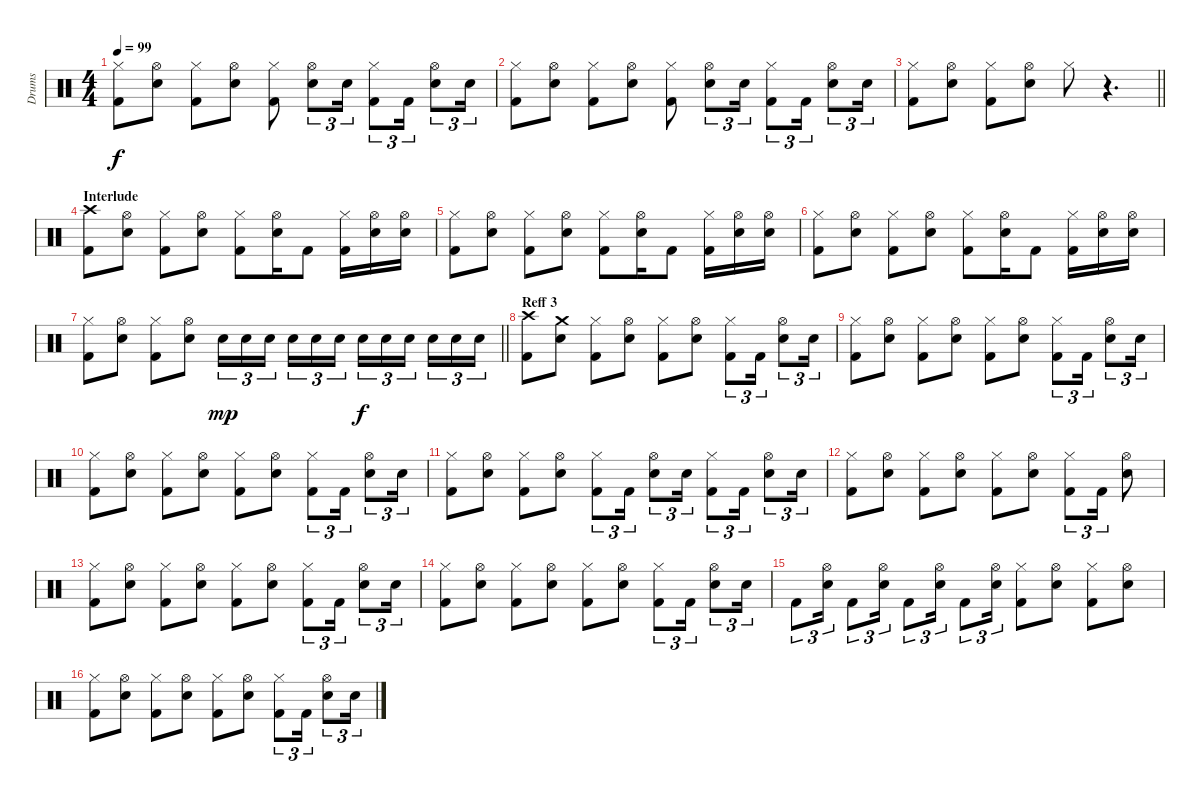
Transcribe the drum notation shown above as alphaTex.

\track ("Drums" "Drums") {instrument percussion}
\staff {score}
\articulation defaults
\ts (4 4)
\tempo 99
\clef neutral
\ks c
("Hi-Hat (closed)" "Kick (hit) 2").8{dy f} ("Hi-Hat (open)" "Snare (hit) 2").8 ("Hi-Hat (closed)" "Kick (hit) 2").8 ("Hi-Hat (open)" "Snare (hit) 2").8 ("Hi-Hat (closed)" "Kick (hit) 2").8 ("Hi-Hat (open)" "Snare (hit) 2").8{tu (3 2)} "Snare (hit) 2".16{tu (3 2)} ("Hi-Hat (closed)" "Kick (hit) 2").8{tu (3 2)} "Kick (hit) 2".16{tu (3 2)} ("Hi-Hat (open)" "Snare (hit) 2").8{tu (3 2)} "Snare (hit) 2".16{tu (3 2)} |
("Hi-Hat (closed)" "Kick (hit) 2").8 ("Hi-Hat (open)" "Snare (hit) 2").8 ("Hi-Hat (closed)" "Kick (hit) 2").8 ("Hi-Hat (open)" "Snare (hit) 2").8 ("Hi-Hat (closed)" "Kick (hit) 2").8 ("Hi-Hat (open)" "Snare (hit) 2").8{tu (3 2)} "Snare (hit) 2".16{tu (3 2)} ("Hi-Hat (closed)" "Kick (hit) 2").8{tu (3 2)} "Kick (hit) 2".16{tu (3 2)} ("Hi-Hat (open)" "Snare (hit) 2").8{tu (3 2)} "Snare (hit) 2".16{tu (3 2)} |
\barLineRight lightlight
("Hi-Hat (closed)" "Kick (hit) 2").8 ("Hi-Hat (open)" "Snare (hit) 2").8 ("Hi-Hat (closed)" "Kick (hit) 2").8 ("Hi-Hat (open)" "Snare (hit) 2").8 "Hi-Hat (closed)".8 r.4{d} |
\section ("" "Interlude")
("Crash high (hit)" "Kick (hit) 2").8 ("Hi-Hat (open)" "Snare (hit) 2").8 ("Hi-Hat (closed)" "Kick (hit) 2").8 ("Hi-Hat (open)" "Snare (hit) 2").8 ("Hi-Hat (closed)" "Kick (hit) 2").8 ("Hi-Hat (open)" "Snare (hit) 2").16 "Kick (hit) 2".8 ("Hi-Hat (closed)" "Kick (hit) 2").16 ("Hi-Hat (open)" "Snare (hit) 2").16 ("Hi-Hat (open)" "Snare (hit) 2").16 |
("Hi-Hat (closed)" "Kick (hit) 2").8 ("Hi-Hat (open)" "Snare (hit) 2").8 ("Hi-Hat (closed)" "Kick (hit) 2").8 ("Hi-Hat (open)" "Snare (hit) 2").8 ("Hi-Hat (closed)" "Kick (hit) 2").8 ("Hi-Hat (open)" "Snare (hit) 2").16 "Kick (hit) 2".8 ("Hi-Hat (closed)" "Kick (hit) 2").16 ("Hi-Hat (open)" "Snare (hit) 2").16 ("Hi-Hat (open)" "Snare (hit) 2").16 |
("Hi-Hat (closed)" "Kick (hit) 2").8 ("Hi-Hat (open)" "Snare (hit) 2").8 ("Hi-Hat (closed)" "Kick (hit) 2").8 ("Hi-Hat (open)" "Snare (hit) 2").8 ("Hi-Hat (closed)" "Kick (hit) 2").8 ("Hi-Hat (open)" "Snare (hit) 2").16 "Kick (hit) 2".8 ("Hi-Hat (closed)" "Kick (hit) 2").16 ("Hi-Hat (open)" "Snare (hit) 2").16 ("Hi-Hat (open)" "Snare (hit) 2").16 |
\barLineRight lightlight
("Hi-Hat (closed)" "Kick (hit) 2").8 ("Hi-Hat (open)" "Snare (hit) 2").8 ("Hi-Hat (closed)" "Kick (hit) 2").8 ("Hi-Hat (open)" "Snare (hit) 2").8 "Snare (hit) 2".16{tu (3 2) dy mp} "Snare (hit) 2".16{tu (3 2)} "Snare (hit) 2".16{tu (3 2) beam splitsecondary} "Snare (hit) 2".16{tu (3 2)} "Snare (hit) 2".16{tu (3 2)} "Snare (hit) 2".16{tu (3 2)} "Snare (hit) 2".16{tu (3 2) dy f} "Snare (hit) 2".16{tu (3 2)} "Snare (hit) 2".16{tu (3 2) beam splitsecondary} "Snare (hit) 2".16{tu (3 2)} "Snare (hit) 2".16{tu (3 2)} "Snare (hit) 2".16{tu (3 2)} |
\section ("" "Reff 3")
("Crash high (hit)" "Kick (hit) 2").8 ("Crash medium (hit)" "Snare (hit) 2").8 ("Hi-Hat (closed)" "Kick (hit) 2").8 ("Hi-Hat (open)" "Snare (hit) 2").8 ("Hi-Hat (closed)" "Kick (hit) 2").8 ("Hi-Hat (open)" "Snare (hit) 2").8 ("Hi-Hat (closed)" "Kick (hit) 2").8{tu (3 2)} "Kick (hit) 2".16{tu (3 2)} ("Hi-Hat (open)" "Snare (hit) 2").8{tu (3 2)} "Snare (hit) 2".16{tu (3 2)} |
("Hi-Hat (closed)" "Kick (hit) 2").8 ("Hi-Hat (open)" "Snare (hit) 2").8 ("Hi-Hat (closed)" "Kick (hit) 2").8 ("Hi-Hat (open)" "Snare (hit) 2").8 ("Hi-Hat (closed)" "Kick (hit) 2").8 ("Hi-Hat (open)" "Snare (hit) 2").8 ("Hi-Hat (closed)" "Kick (hit) 2").8{tu (3 2)} "Kick (hit) 2".16{tu (3 2)} ("Hi-Hat (open)" "Snare (hit) 2").8{tu (3 2)} "Snare (hit) 2".16{tu (3 2)} |
("Hi-Hat (closed)" "Kick (hit) 2").8 ("Hi-Hat (open)" "Snare (hit) 2").8 ("Hi-Hat (closed)" "Kick (hit) 2").8 ("Hi-Hat (open)" "Snare (hit) 2").8 ("Hi-Hat (closed)" "Kick (hit) 2").8 ("Hi-Hat (open)" "Snare (hit) 2").8 ("Hi-Hat (closed)" "Kick (hit) 2").8{tu (3 2)} "Kick (hit) 2".16{tu (3 2)} ("Hi-Hat (open)" "Snare (hit) 2").8{tu (3 2)} "Snare (hit) 2".16{tu (3 2)} |
("Hi-Hat (closed)" "Kick (hit) 2").8 ("Hi-Hat (open)" "Snare (hit) 2").8 ("Hi-Hat (closed)" "Kick (hit) 2").8 ("Hi-Hat (open)" "Snare (hit) 2").8 ("Hi-Hat (closed)" "Kick (hit) 2").8{tu (3 2)} "Kick (hit) 2".16{tu (3 2)} ("Hi-Hat (open)" "Snare (hit) 2").8{tu (3 2)} "Snare (hit) 2".16{tu (3 2)} ("Hi-Hat (closed)" "Kick (hit) 2").8{tu (3 2)} "Kick (hit) 2".16{tu (3 2)} ("Hi-Hat (open)" "Snare (hit) 2").8{tu (3 2)} "Snare (hit) 2".16{tu (3 2)} |
("Hi-Hat (closed)" "Kick (hit) 2").8 ("Hi-Hat (open)" "Snare (hit) 2").8 ("Hi-Hat (closed)" "Kick (hit) 2").8 ("Hi-Hat (open)" "Snare (hit) 2").8 ("Hi-Hat (closed)" "Kick (hit) 2").8 ("Hi-Hat (open)" "Snare (hit) 2").8 ("Hi-Hat (closed)" "Kick (hit) 2").8{tu (3 2)} "Kick (hit) 2".16{tu (3 2)} ("Hi-Hat (open)" "Snare (hit) 2").8 |
("Hi-Hat (closed)" "Kick (hit) 2").8 ("Hi-Hat (open)" "Snare (hit) 2").8 ("Hi-Hat (closed)" "Kick (hit) 2").8 ("Hi-Hat (open)" "Snare (hit) 2").8 ("Hi-Hat (closed)" "Kick (hit) 2").8 ("Hi-Hat (open)" "Snare (hit) 2").8 ("Hi-Hat (closed)" "Kick (hit) 2").8{tu (3 2)} "Kick (hit) 2".16{tu (3 2)} ("Hi-Hat (open)" "Snare (hit) 2").8{tu (3 2)} "Snare (hit) 2".16{tu (3 2)} |
("Hi-Hat (closed)" "Kick (hit) 2").8 ("Hi-Hat (open)" "Snare (hit) 2").8 ("Hi-Hat (closed)" "Kick (hit) 2").8 ("Hi-Hat (open)" "Snare (hit) 2").8 ("Hi-Hat (closed)" "Kick (hit) 2").8 ("Hi-Hat (open)" "Snare (hit) 2").8 ("Hi-Hat (closed)" "Kick (hit) 2").8{tu (3 2)} "Kick (hit) 2".16{tu (3 2)} ("Hi-Hat (open)" "Snare (hit) 2").8{tu (3 2)} "Snare (hit) 2".16{tu (3 2)} |
"Kick (hit) 2".8{tu (3 2)} ("Hi-Hat (open)" "Snare (hit) 2").16{tu (3 2)} "Kick (hit) 2".8{tu (3 2)} ("Hi-Hat (open)" "Snare (hit) 2").16{tu (3 2)} "Kick (hit) 2".8{tu (3 2)} ("Hi-Hat (open)" "Snare (hit) 2").16{tu (3 2)} "Kick (hit) 2".8{tu (3 2)} ("Hi-Hat (open)" "Snare (hit) 2").16{tu (3 2)} ("Hi-Hat (closed)" "Kick (hit) 2").8 ("Hi-Hat (open)" "Snare (hit) 2").8 ("Hi-Hat (closed)" "Kick (hit) 2").8 ("Hi-Hat (open)" "Snare (hit) 2").8 |
("Hi-Hat (closed)" "Kick (hit) 2").8 ("Hi-Hat (open)" "Snare (hit) 2").8 ("Hi-Hat (closed)" "Kick (hit) 2").8 ("Hi-Hat (open)" "Snare (hit) 2").8 ("Hi-Hat (closed)" "Kick (hit) 2").8 ("Hi-Hat (open)" "Snare (hit) 2").8 ("Hi-Hat (closed)" "Kick (hit) 2").8{tu (3 2)} "Kick (hit) 2".16{tu (3 2)} ("Hi-Hat (open)" "Snare (hit) 2").8{tu (3 2)} "Snare (hit) 2".16{tu (3 2)}
